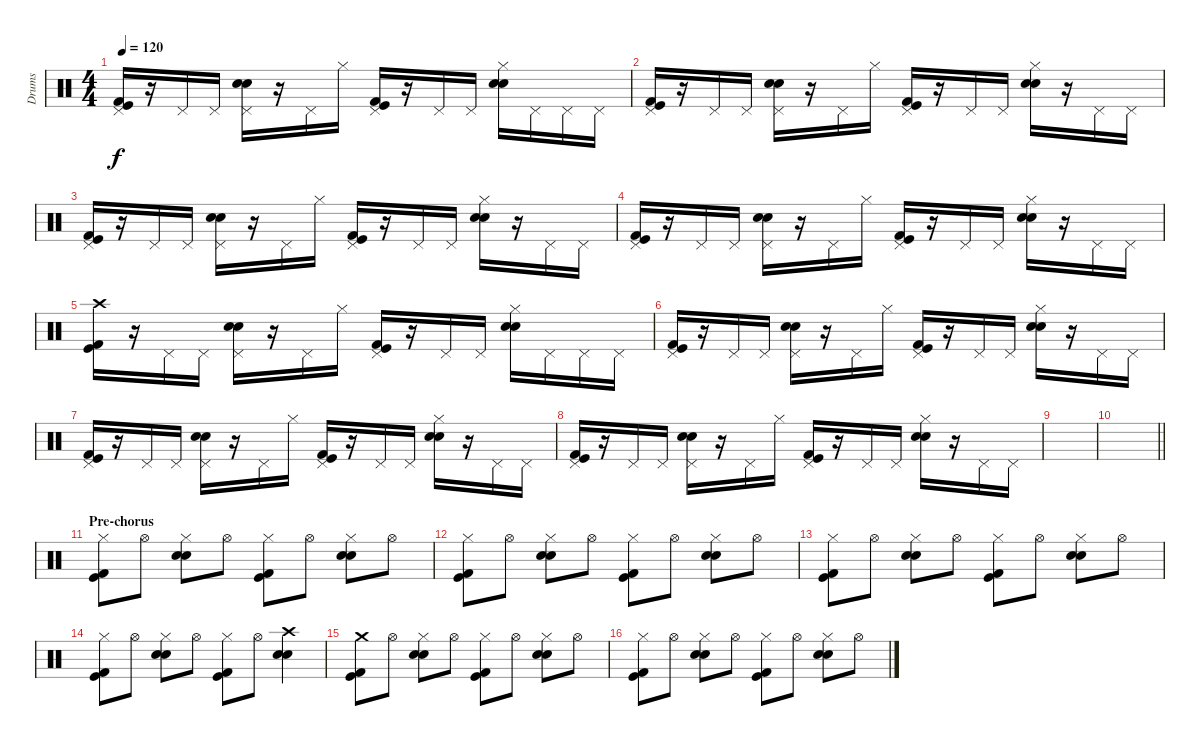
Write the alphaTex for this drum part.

\track ("Drums" "Drums") {instrument percussion}
\staff {score}
\articulation defaults
\ts (4 4)
\tempo 120
\clef neutral
\ks c
("Pedal Hi-Hat (hit)" "Kick (hit)" "Kick (hit) 2").16{dy f} r.16 "Pedal Hi-Hat (hit)".16 "Pedal Hi-Hat (hit)".16 ("Pedal Hi-Hat (hit)" "Electric Snare (hit)" "Electric Snare (hit)").16 r.16 "Pedal Hi-Hat (hit)".16 "Hi-Hat (closed)".16 ("Pedal Hi-Hat (hit)" "Kick (hit)" "Kick (hit) 2").16 r.16 "Pedal Hi-Hat (hit)".16 "Pedal Hi-Hat (hit)".16 ("Hi-Hat (closed)" "Electric Snare (hit)" "Electric Snare (hit)").16 "Pedal Hi-Hat (hit)".16 "Pedal Hi-Hat (hit)".16 "Pedal Hi-Hat (hit)".16 |
("Pedal Hi-Hat (hit)" "Kick (hit)" "Kick (hit) 2").16 r.16 "Pedal Hi-Hat (hit)".16 "Pedal Hi-Hat (hit)".16 ("Pedal Hi-Hat (hit)" "Electric Snare (hit)" "Electric Snare (hit)").16 r.16 "Pedal Hi-Hat (hit)".16 "Hi-Hat (closed)".16 ("Pedal Hi-Hat (hit)" "Kick (hit)" "Kick (hit) 2").16 r.16 "Pedal Hi-Hat (hit)".16 "Pedal Hi-Hat (hit)".16 ("Hi-Hat (closed)" "Electric Snare (hit)" "Electric Snare (hit)").16 r.16 "Pedal Hi-Hat (hit)".16 "Pedal Hi-Hat (hit)".16 |
("Pedal Hi-Hat (hit)" "Kick (hit)" "Kick (hit) 2").16 r.16 "Pedal Hi-Hat (hit)".16 "Pedal Hi-Hat (hit)".16 ("Pedal Hi-Hat (hit)" "Electric Snare (hit)" "Electric Snare (hit)").16 r.16 "Pedal Hi-Hat (hit)".16 "Hi-Hat (closed)".16 ("Pedal Hi-Hat (hit)" "Kick (hit)" "Kick (hit) 2").16 r.16 "Pedal Hi-Hat (hit)".16 "Pedal Hi-Hat (hit)".16 ("Hi-Hat (closed)" "Electric Snare (hit)" "Electric Snare (hit)").16 r.16 "Pedal Hi-Hat (hit)".16 "Pedal Hi-Hat (hit)".16 |
("Pedal Hi-Hat (hit)" "Kick (hit)" "Kick (hit) 2").16 r.16 "Pedal Hi-Hat (hit)".16 "Pedal Hi-Hat (hit)".16 ("Pedal Hi-Hat (hit)" "Electric Snare (hit)" "Electric Snare (hit)").16 r.16 "Pedal Hi-Hat (hit)".16 "Hi-Hat (closed)".16 ("Pedal Hi-Hat (hit)" "Kick (hit)" "Kick (hit) 2").16 r.16 "Pedal Hi-Hat (hit)".16 "Pedal Hi-Hat (hit)".16 ("Hi-Hat (closed)" "Electric Snare (hit)" "Electric Snare (hit)").16 r.16 "Pedal Hi-Hat (hit)".16 "Pedal Hi-Hat (hit)".16 |
("Crash high (hit)" "Kick (hit)" "Kick (hit) 2").16 r.16 "Pedal Hi-Hat (hit)".16 "Pedal Hi-Hat (hit)".16 ("Pedal Hi-Hat (hit)" "Electric Snare (hit)" "Electric Snare (hit)").16 r.16 "Pedal Hi-Hat (hit)".16 "Hi-Hat (closed)".16 ("Pedal Hi-Hat (hit)" "Kick (hit)" "Kick (hit) 2").16 r.16 "Pedal Hi-Hat (hit)".16 "Pedal Hi-Hat (hit)".16 ("Hi-Hat (closed)" "Electric Snare (hit)" "Electric Snare (hit)").16 "Pedal Hi-Hat (hit)".16 "Pedal Hi-Hat (hit)".16 "Pedal Hi-Hat (hit)".16 |
("Pedal Hi-Hat (hit)" "Kick (hit)" "Kick (hit) 2").16 r.16 "Pedal Hi-Hat (hit)".16 "Pedal Hi-Hat (hit)".16 ("Pedal Hi-Hat (hit)" "Electric Snare (hit)" "Electric Snare (hit)").16 r.16 "Pedal Hi-Hat (hit)".16 "Hi-Hat (closed)".16 ("Pedal Hi-Hat (hit)" "Kick (hit)" "Kick (hit) 2").16 r.16 "Pedal Hi-Hat (hit)".16 "Pedal Hi-Hat (hit)".16 ("Hi-Hat (closed)" "Electric Snare (hit)" "Electric Snare (hit)").16 r.16 "Pedal Hi-Hat (hit)".16 "Pedal Hi-Hat (hit)".16 |
("Pedal Hi-Hat (hit)" "Kick (hit)" "Kick (hit) 2").16 r.16 "Pedal Hi-Hat (hit)".16 "Pedal Hi-Hat (hit)".16 ("Pedal Hi-Hat (hit)" "Electric Snare (hit)" "Electric Snare (hit)").16 r.16 "Pedal Hi-Hat (hit)".16 "Hi-Hat (closed)".16 ("Pedal Hi-Hat (hit)" "Kick (hit)" "Kick (hit) 2").16 r.16 "Pedal Hi-Hat (hit)".16 "Pedal Hi-Hat (hit)".16 ("Hi-Hat (closed)" "Electric Snare (hit)" "Electric Snare (hit)").16 r.16 "Pedal Hi-Hat (hit)".16 "Pedal Hi-Hat (hit)".16 |
("Pedal Hi-Hat (hit)" "Kick (hit)" "Kick (hit) 2").16 r.16 "Pedal Hi-Hat (hit)".16 "Pedal Hi-Hat (hit)".16 ("Pedal Hi-Hat (hit)" "Electric Snare (hit)" "Electric Snare (hit)").16 r.16 "Pedal Hi-Hat (hit)".16 "Hi-Hat (closed)".16 ("Pedal Hi-Hat (hit)" "Kick (hit)" "Kick (hit) 2").16 r.16 "Pedal Hi-Hat (hit)".16 "Pedal Hi-Hat (hit)".16 ("Hi-Hat (closed)" "Electric Snare (hit)" "Electric Snare (hit)").16 r.16 "Pedal Hi-Hat (hit)".16 "Pedal Hi-Hat (hit)".16 |
|
\barLineRight lightlight
|
\section ("" "Pre-chorus")
("Hi-Hat (closed)" "Kick (hit) 2" "Kick (hit)").8 "Hi-Hat (open)".8 ("Hi-Hat (closed)" "Electric Snare (hit)" "Electric Snare (hit)").8 "Hi-Hat (open)".8 ("Hi-Hat (closed)" "Kick (hit) 2" "Kick (hit)").8 "Hi-Hat (open)".8 ("Hi-Hat (closed)" "Electric Snare (hit)" "Electric Snare (hit)").8 "Hi-Hat (open)".8 |
("Hi-Hat (closed)" "Kick (hit) 2" "Kick (hit)").8 "Hi-Hat (open)".8 ("Hi-Hat (closed)" "Electric Snare (hit)" "Electric Snare (hit)").8 "Hi-Hat (open)".8 ("Hi-Hat (closed)" "Kick (hit) 2" "Kick (hit)").8 "Hi-Hat (open)".8 ("Hi-Hat (closed)" "Electric Snare (hit)" "Electric Snare (hit)").8 "Hi-Hat (open)".8 |
("Hi-Hat (closed)" "Kick (hit) 2" "Kick (hit)").8 "Hi-Hat (open)".8 ("Hi-Hat (closed)" "Electric Snare (hit)" "Electric Snare (hit)").8 "Hi-Hat (open)".8 ("Hi-Hat (closed)" "Kick (hit) 2" "Kick (hit)").8 "Hi-Hat (open)".8 ("Hi-Hat (closed)" "Electric Snare (hit)" "Electric Snare (hit)").8 "Hi-Hat (open)".8 |
("Hi-Hat (closed)" "Kick (hit) 2" "Kick (hit)").8 "Hi-Hat (open)".8 ("Hi-Hat (closed)" "Electric Snare (hit)" "Electric Snare (hit)").8 "Hi-Hat (open)".8 ("Hi-Hat (closed)" "Kick (hit) 2" "Kick (hit)").8 "Hi-Hat (open)".8 ("Crash high (hit)" "Electric Snare (hit)" "Electric Snare (hit)").4 |
("Crash medium (hit)" "Kick (hit) 2" "Kick (hit)").8 "Hi-Hat (open)".8 ("Hi-Hat (closed)" "Electric Snare (hit)" "Electric Snare (hit)").8 "Hi-Hat (open)".8 ("Hi-Hat (closed)" "Kick (hit) 2" "Kick (hit)").8 "Hi-Hat (open)".8 ("Hi-Hat (closed)" "Electric Snare (hit)" "Electric Snare (hit)").8 "Hi-Hat (open)".8 |
("Hi-Hat (closed)" "Kick (hit) 2" "Kick (hit)").8 "Hi-Hat (open)".8 ("Hi-Hat (closed)" "Electric Snare (hit)" "Electric Snare (hit)").8 "Hi-Hat (open)".8 ("Hi-Hat (closed)" "Kick (hit) 2" "Kick (hit)").8 "Hi-Hat (open)".8 ("Hi-Hat (closed)" "Electric Snare (hit)" "Electric Snare (hit)").8 "Hi-Hat (open)".8
